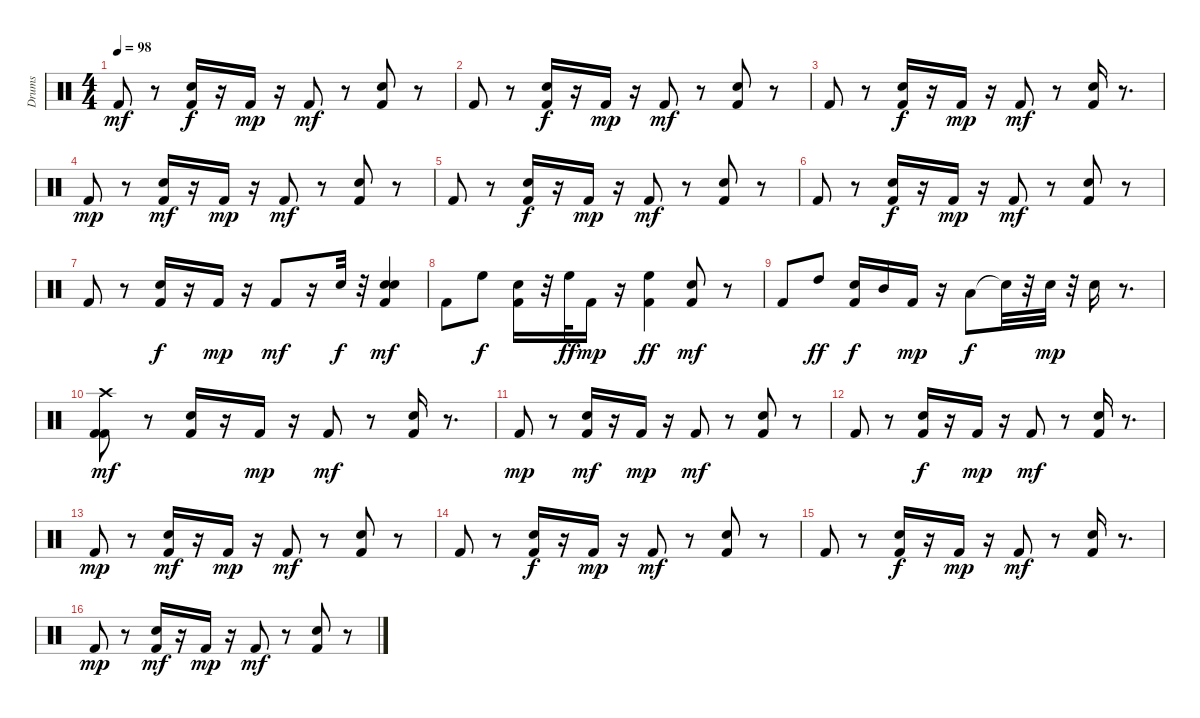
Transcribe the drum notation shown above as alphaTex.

\track ("Drums" "Drums") {instrument percussion}
\staff {score}
\articulation defaults
\ts (4 4)
\tempo 98
\clef neutral
\ks c "Kick (hit) 2".8{dy mf}
r.8 ("Kick (hit) 2" "Snare (hit) 2").16{dy f} r.16 "Kick (hit) 2".16{dy mp} r.16 "Kick (hit) 2".8{dy mf} r.8 ("Kick (hit) 2" "Snare (hit) 2").8 r.8 |
"Kick (hit) 2".8 r.8 ("Kick (hit) 2" "Snare (hit) 2").16{dy f} r.16 "Kick (hit) 2".16{dy mp} r.16 "Kick (hit) 2".8{dy mf} r.8 ("Kick (hit) 2" "Snare (hit) 2").8 r.8 |
"Kick (hit) 2".8 r.8 ("Kick (hit) 2" "Snare (hit) 2").16{dy f} r.16 "Kick (hit) 2".16{dy mp} r.16 "Kick (hit) 2".8{dy mf} r.8 ("Kick (hit) 2" "Snare (hit) 2").16 r.8{d} |
"Kick (hit) 2".8{dy mp} r.8 ("Kick (hit) 2" "Snare (hit) 2").16{dy mf} r.16 "Kick (hit) 2".16{dy mp} r.16 "Kick (hit) 2".8{dy mf} r.8 ("Kick (hit) 2" "Snare (hit) 2").8 r.8 |
"Kick (hit) 2".8 r.8 ("Kick (hit) 2" "Snare (hit) 2").16{dy f} r.16 "Kick (hit) 2".16{dy mp} r.16 "Kick (hit) 2".8{dy mf} r.8 ("Kick (hit) 2" "Snare (hit) 2").8 r.8 |
"Kick (hit) 2".8 r.8 ("Kick (hit) 2" "Snare (hit) 2").16{dy f} r.16 "Kick (hit) 2".16{dy mp} r.16 "Kick (hit) 2".8{dy mf} r.8 ("Kick (hit) 2" "Snare (hit) 2").8 r.8 |
"Kick (hit) 2".8 r.8 ("Kick (hit) 2" "Snare (hit) 2").16{dy f} r.16 "Kick (hit) 2".16{dy mp} r.16 "Kick (hit) 2".8{dy mf} r.16 "Snare (hit) 2".32{dy f} r.32 ("Kick (hit) 2" "Snare (hit) 2" "Snare (hit) 2").4{dy mf} |
"Kick (hit) 2".8 "High Floor Tom (hit)".8{dy f} ("Kick (hit) 2" "Snare (hit) 2").16 r.32 "High Floor Tom (hit)".32{dy ff} "Kick (hit) 2".16{dy mp} r.16 ("Kick (hit) 2" "High Floor Tom (hit)").4{dy ff} ("Kick (hit) 2" "Snare (hit) 2").8{dy mf} r.8 |
"Kick (hit) 2".8 "High Tom (hit)".8{dy ff} ("Kick (hit) 2" "Snare (hit) 2").16{dy f} "Mid Tom (hit)".16 "Kick (hit) 2".16{dy mp} r.16 "Low Tom (hit)".8{dy f} "Snare (hit)"{t}.32 r.32 "Snare (hit) 2".32{dy mp} r.32 "Snare (hit) 2".16 r.8{d} |
("Kick (hit) 2" "Crash high (hit)" "Kick (hit) 2").8{dy mf} r.8 ("Kick (hit) 2" "Snare (hit) 2").16 r.16 "Kick (hit) 2".16{dy mp} r.16 "Kick (hit) 2".8{dy mf} r.8 ("Kick (hit) 2" "Snare (hit) 2").16 r.8{d} |
"Kick (hit) 2".8{dy mp} r.8 ("Kick (hit) 2" "Snare (hit) 2").16{dy mf} r.16 "Kick (hit) 2".16{dy mp} r.16 "Kick (hit) 2".8{dy mf} r.8 ("Kick (hit) 2" "Snare (hit) 2").8 r.8 |
"Kick (hit) 2".8 r.8 ("Kick (hit) 2" "Snare (hit) 2").16{dy f} r.16 "Kick (hit) 2".16{dy mp} r.16 "Kick (hit) 2".8{dy mf} r.8 ("Kick (hit) 2" "Snare (hit) 2").16 r.8{d} |
"Kick (hit) 2".8{dy mp} r.8 ("Kick (hit) 2" "Snare (hit) 2").16{dy mf} r.16 "Kick (hit) 2".16{dy mp} r.16 "Kick (hit) 2".8{dy mf} r.8 ("Kick (hit) 2" "Snare (hit) 2").8 r.8 |
"Kick (hit) 2".8 r.8 ("Kick (hit) 2" "Snare (hit) 2").16{dy f} r.16 "Kick (hit) 2".16{dy mp} r.16 "Kick (hit) 2".8{dy mf} r.8 ("Kick (hit) 2" "Snare (hit) 2").8 r.8 |
"Kick (hit) 2".8 r.8 ("Kick (hit) 2" "Snare (hit) 2").16{dy f} r.16 "Kick (hit) 2".16{dy mp} r.16 "Kick (hit) 2".8{dy mf} r.8 ("Kick (hit) 2" "Snare (hit) 2").16 r.8{d} |
"Kick (hit) 2".8{dy mp} r.8 ("Kick (hit) 2" "Snare (hit) 2").16{dy mf} r.16 "Kick (hit) 2".16{dy mp} r.16 "Kick (hit) 2".8{dy mf} r.8 ("Kick (hit) 2" "Snare (hit) 2").8 r.8
